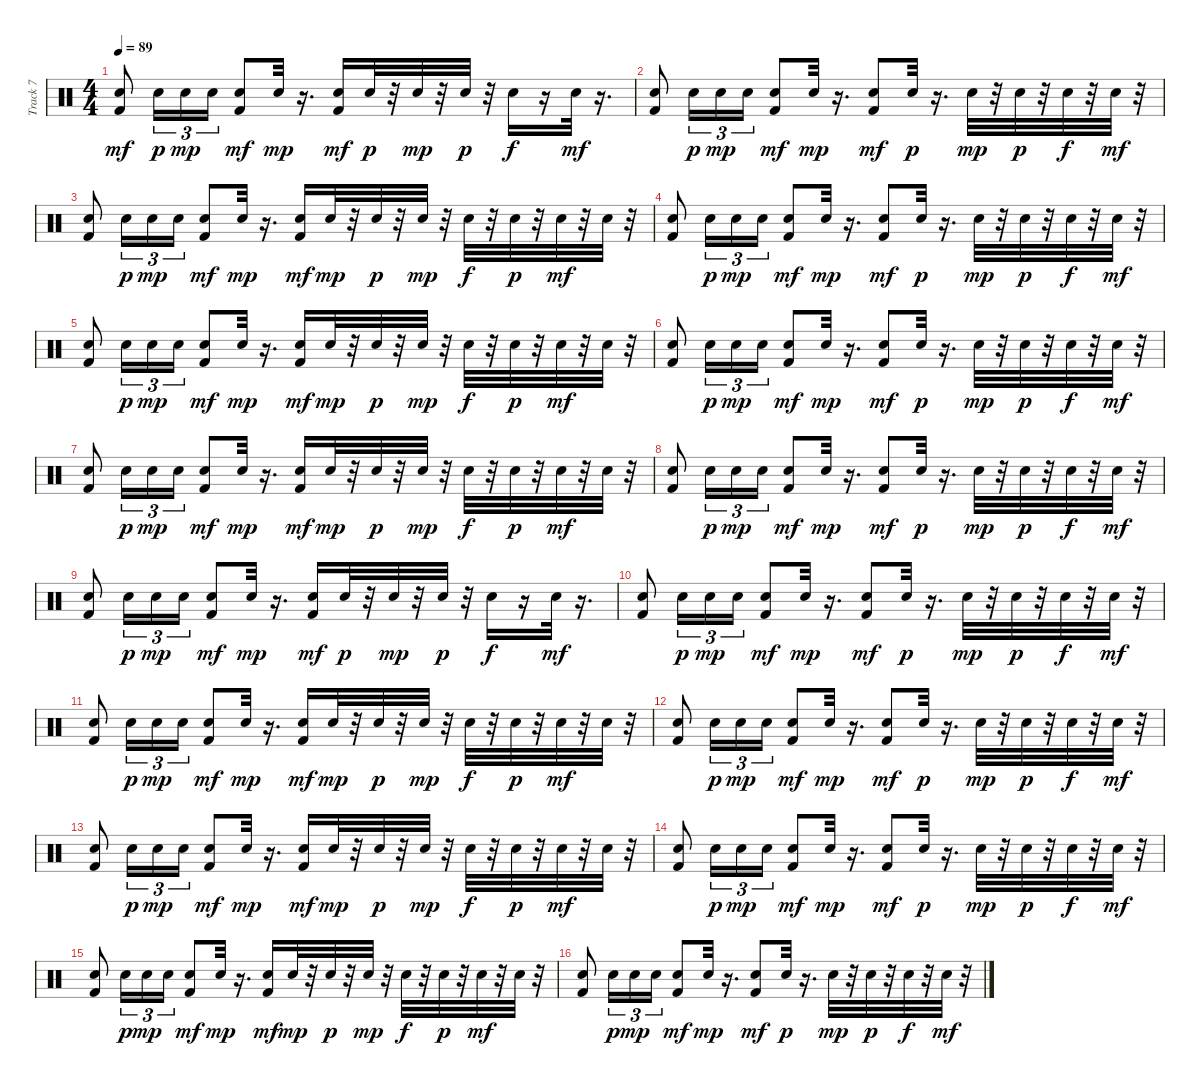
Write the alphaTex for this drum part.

\track ("Track 7" "Track 7") {instrument percussion}
\staff {score}
\articulation defaults
\ts (4 4)
\tempo 89
\clef neutral
\ks c
("Electric Snare (hit)" "Kick (hit) 2").8{dy mf} "Electric Snare (hit)".16{tu (3 2) dy p} "Electric Snare (hit)".16{tu (3 2) dy mp} "Electric Snare (hit)".16{tu (3 2)} ("Electric Snare (hit)" "Kick (hit) 2").8{dy mf} "Electric Snare (hit)".32{dy mp} r.16{d} ("Electric Snare (hit)" "Kick (hit) 2").16{dy mf} "Electric Snare (hit)".32{dy p} r.32 "Electric Snare (hit)".32{dy mp} r.32 "Electric Snare (hit)".32{dy p} r.32 "Electric Snare (hit)".16{dy f} r.16 "Electric Snare (hit)".32{dy mf} r.16{d} |
("Electric Snare (hit)" "Kick (hit) 2").8 "Electric Snare (hit)".16{tu (3 2) dy p} "Electric Snare (hit)".16{tu (3 2) dy mp} "Electric Snare (hit)".16{tu (3 2)} ("Electric Snare (hit)" "Kick (hit) 2").8{dy mf} "Electric Snare (hit)".32{dy mp} r.16{d} ("Electric Snare (hit)" "Kick (hit) 2").8{dy mf} "Electric Snare (hit)".32{dy p} r.16{d} "Electric Snare (hit)".32{dy mp} r.32 "Electric Snare (hit)".32{dy p} r.32 "Electric Snare (hit)".32{dy f} r.32 "Electric Snare (hit)".32{dy mf} r.32 |
("Electric Snare (hit)" "Kick (hit) 2").8 "Electric Snare (hit)".16{tu (3 2) dy p} "Electric Snare (hit)".16{tu (3 2) dy mp} "Electric Snare (hit)".16{tu (3 2)} ("Electric Snare (hit)" "Kick (hit) 2").8{dy mf} "Electric Snare (hit)".32{dy mp} r.16{d} ("Electric Snare (hit)" "Kick (hit) 2").16{dy mf} "Electric Snare (hit)".32{dy mp} r.32 "Electric Snare (hit)".32{dy p} r.32 "Electric Snare (hit)".32{dy mp} r.32 "Electric Snare (hit)".32{dy f} r.32 "Electric Snare (hit)".32{dy p} r.32 "Electric Snare (hit)".32{dy mf} r.32 "Electric Snare (hit)".32 r.32 |
("Electric Snare (hit)" "Kick (hit) 2").8 "Electric Snare (hit)".16{tu (3 2) dy p} "Electric Snare (hit)".16{tu (3 2) dy mp} "Electric Snare (hit)".16{tu (3 2)} ("Electric Snare (hit)" "Kick (hit) 2").8{dy mf} "Electric Snare (hit)".32{dy mp} r.16{d} ("Electric Snare (hit)" "Kick (hit) 2").8{dy mf} "Electric Snare (hit)".32{dy p} r.16{d} "Electric Snare (hit)".32{dy mp} r.32 "Electric Snare (hit)".32{dy p} r.32 "Electric Snare (hit)".32{dy f} r.32 "Electric Snare (hit)".32{dy mf} r.32 |
("Electric Snare (hit)" "Kick (hit) 2").8 "Electric Snare (hit)".16{tu (3 2) dy p} "Electric Snare (hit)".16{tu (3 2) dy mp} "Electric Snare (hit)".16{tu (3 2)} ("Electric Snare (hit)" "Kick (hit) 2").8{dy mf} "Electric Snare (hit)".32{dy mp} r.16{d} ("Electric Snare (hit)" "Kick (hit) 2").16{dy mf} "Electric Snare (hit)".32{dy mp} r.32 "Electric Snare (hit)".32{dy p} r.32 "Electric Snare (hit)".32{dy mp} r.32 "Electric Snare (hit)".32{dy f} r.32 "Electric Snare (hit)".32{dy p} r.32 "Electric Snare (hit)".32{dy mf} r.32 "Electric Snare (hit)".32 r.32 |
("Electric Snare (hit)" "Kick (hit) 2").8 "Electric Snare (hit)".16{tu (3 2) dy p} "Electric Snare (hit)".16{tu (3 2) dy mp} "Electric Snare (hit)".16{tu (3 2)} ("Electric Snare (hit)" "Kick (hit) 2").8{dy mf} "Electric Snare (hit)".32{dy mp} r.16{d} ("Electric Snare (hit)" "Kick (hit) 2").8{dy mf} "Electric Snare (hit)".32{dy p} r.16{d} "Electric Snare (hit)".32{dy mp} r.32 "Electric Snare (hit)".32{dy p} r.32 "Electric Snare (hit)".32{dy f} r.32 "Electric Snare (hit)".32{dy mf} r.32 |
("Electric Snare (hit)" "Kick (hit) 2").8 "Electric Snare (hit)".16{tu (3 2) dy p} "Electric Snare (hit)".16{tu (3 2) dy mp} "Electric Snare (hit)".16{tu (3 2)} ("Electric Snare (hit)" "Kick (hit) 2").8{dy mf} "Electric Snare (hit)".32{dy mp} r.16{d} ("Electric Snare (hit)" "Kick (hit) 2").16{dy mf} "Electric Snare (hit)".32{dy mp} r.32 "Electric Snare (hit)".32{dy p} r.32 "Electric Snare (hit)".32{dy mp} r.32 "Electric Snare (hit)".32{dy f} r.32 "Electric Snare (hit)".32{dy p} r.32 "Electric Snare (hit)".32{dy mf} r.32 "Electric Snare (hit)".32 r.32 |
("Electric Snare (hit)" "Kick (hit) 2").8 "Electric Snare (hit)".16{tu (3 2) dy p} "Electric Snare (hit)".16{tu (3 2) dy mp} "Electric Snare (hit)".16{tu (3 2)} ("Electric Snare (hit)" "Kick (hit) 2").8{dy mf} "Electric Snare (hit)".32{dy mp} r.16{d} ("Electric Snare (hit)" "Kick (hit) 2").8{dy mf} "Electric Snare (hit)".32{dy p} r.16{d} "Electric Snare (hit)".32{dy mp} r.32 "Electric Snare (hit)".32{dy p} r.32 "Electric Snare (hit)".32{dy f} r.32 "Electric Snare (hit)".32{dy mf} r.32 |
("Electric Snare (hit)" "Kick (hit) 2").8 "Electric Snare (hit)".16{tu (3 2) dy p} "Electric Snare (hit)".16{tu (3 2) dy mp} "Electric Snare (hit)".16{tu (3 2)} ("Electric Snare (hit)" "Kick (hit) 2").8{dy mf} "Electric Snare (hit)".32{dy mp} r.16{d} ("Electric Snare (hit)" "Kick (hit) 2").16{dy mf} "Electric Snare (hit)".32{dy p} r.32 "Electric Snare (hit)".32{dy mp} r.32 "Electric Snare (hit)".32{dy p} r.32 "Electric Snare (hit)".16{dy f} r.16 "Electric Snare (hit)".32{dy mf} r.16{d} |
("Electric Snare (hit)" "Kick (hit) 2").8 "Electric Snare (hit)".16{tu (3 2) dy p} "Electric Snare (hit)".16{tu (3 2) dy mp} "Electric Snare (hit)".16{tu (3 2)} ("Electric Snare (hit)" "Kick (hit) 2").8{dy mf} "Electric Snare (hit)".32{dy mp} r.16{d} ("Electric Snare (hit)" "Kick (hit) 2").8{dy mf} "Electric Snare (hit)".32{dy p} r.16{d} "Electric Snare (hit)".32{dy mp} r.32 "Electric Snare (hit)".32{dy p} r.32 "Electric Snare (hit)".32{dy f} r.32 "Electric Snare (hit)".32{dy mf} r.32 |
("Electric Snare (hit)" "Kick (hit) 2").8 "Electric Snare (hit)".16{tu (3 2) dy p} "Electric Snare (hit)".16{tu (3 2) dy mp} "Electric Snare (hit)".16{tu (3 2)} ("Electric Snare (hit)" "Kick (hit) 2").8{dy mf} "Electric Snare (hit)".32{dy mp} r.16{d} ("Electric Snare (hit)" "Kick (hit) 2").16{dy mf} "Electric Snare (hit)".32{dy mp} r.32 "Electric Snare (hit)".32{dy p} r.32 "Electric Snare (hit)".32{dy mp} r.32 "Electric Snare (hit)".32{dy f} r.32 "Electric Snare (hit)".32{dy p} r.32 "Electric Snare (hit)".32{dy mf} r.32 "Electric Snare (hit)".32 r.32 |
("Electric Snare (hit)" "Kick (hit) 2").8 "Electric Snare (hit)".16{tu (3 2) dy p} "Electric Snare (hit)".16{tu (3 2) dy mp} "Electric Snare (hit)".16{tu (3 2)} ("Electric Snare (hit)" "Kick (hit) 2").8{dy mf} "Electric Snare (hit)".32{dy mp} r.16{d} ("Electric Snare (hit)" "Kick (hit) 2").8{dy mf} "Electric Snare (hit)".32{dy p} r.16{d} "Electric Snare (hit)".32{dy mp} r.32 "Electric Snare (hit)".32{dy p} r.32 "Electric Snare (hit)".32{dy f} r.32 "Electric Snare (hit)".32{dy mf} r.32 |
("Electric Snare (hit)" "Kick (hit) 2").8 "Electric Snare (hit)".16{tu (3 2) dy p} "Electric Snare (hit)".16{tu (3 2) dy mp} "Electric Snare (hit)".16{tu (3 2)} ("Electric Snare (hit)" "Kick (hit) 2").8{dy mf} "Electric Snare (hit)".32{dy mp} r.16{d} ("Electric Snare (hit)" "Kick (hit) 2").16{dy mf} "Electric Snare (hit)".32{dy mp} r.32 "Electric Snare (hit)".32{dy p} r.32 "Electric Snare (hit)".32{dy mp} r.32 "Electric Snare (hit)".32{dy f} r.32 "Electric Snare (hit)".32{dy p} r.32 "Electric Snare (hit)".32{dy mf} r.32 "Electric Snare (hit)".32 r.32 |
("Electric Snare (hit)" "Kick (hit) 2").8 "Electric Snare (hit)".16{tu (3 2) dy p} "Electric Snare (hit)".16{tu (3 2) dy mp} "Electric Snare (hit)".16{tu (3 2)} ("Electric Snare (hit)" "Kick (hit) 2").8{dy mf} "Electric Snare (hit)".32{dy mp} r.16{d} ("Electric Snare (hit)" "Kick (hit) 2").8{dy mf} "Electric Snare (hit)".32{dy p} r.16{d} "Electric Snare (hit)".32{dy mp} r.32 "Electric Snare (hit)".32{dy p} r.32 "Electric Snare (hit)".32{dy f} r.32 "Electric Snare (hit)".32{dy mf} r.32 |
("Electric Snare (hit)" "Kick (hit) 2").8 "Electric Snare (hit)".16{tu (3 2) dy p} "Electric Snare (hit)".16{tu (3 2) dy mp} "Electric Snare (hit)".16{tu (3 2)} ("Electric Snare (hit)" "Kick (hit) 2").8{dy mf} "Electric Snare (hit)".32{dy mp} r.16{d} ("Electric Snare (hit)" "Kick (hit) 2").16{dy mf} "Electric Snare (hit)".32{dy mp} r.32 "Electric Snare (hit)".32{dy p} r.32 "Electric Snare (hit)".32{dy mp} r.32 "Electric Snare (hit)".32{dy f} r.32 "Electric Snare (hit)".32{dy p} r.32 "Electric Snare (hit)".32{dy mf} r.32 "Electric Snare (hit)".32 r.32 |
("Electric Snare (hit)" "Kick (hit) 2").8 "Electric Snare (hit)".16{tu (3 2) dy p} "Electric Snare (hit)".16{tu (3 2) dy mp} "Electric Snare (hit)".16{tu (3 2)} ("Electric Snare (hit)" "Kick (hit) 2").8{dy mf} "Electric Snare (hit)".32{dy mp} r.16{d} ("Electric Snare (hit)" "Kick (hit) 2").8{dy mf} "Electric Snare (hit)".32{dy p} r.16{d} "Electric Snare (hit)".32{dy mp} r.32 "Electric Snare (hit)".32{dy p} r.32 "Electric Snare (hit)".32{dy f} r.32 "Electric Snare (hit)".32{dy mf} r.32
